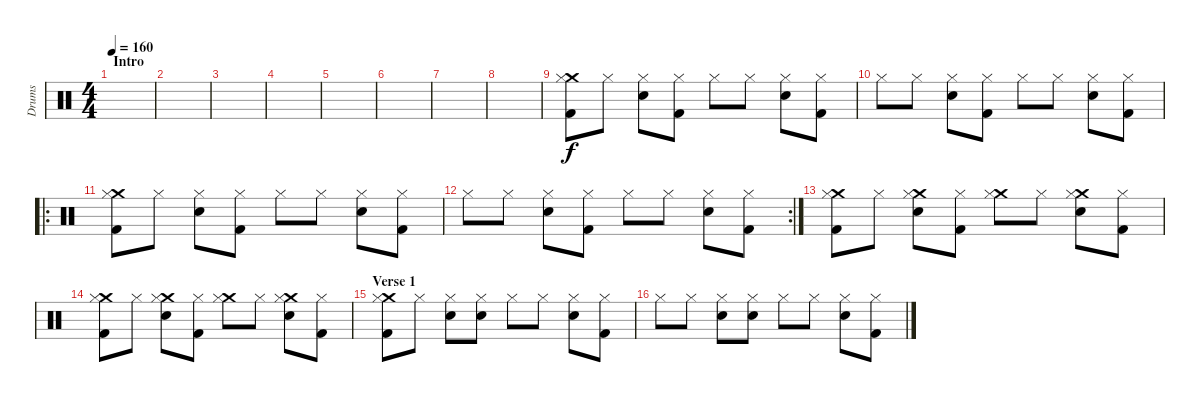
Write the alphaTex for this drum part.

\track ("Drums" "Drums") {instrument percussion}
\staff {score}
\articulation defaults
\ts (4 4)
\section ("" "Intro")
\tempo 160
\clef neutral
\ks c
|
|
|
|
|
|
|
|
("Crash medium (hit)" "Hi-Hat (closed)" "Kick (hit) 2").8 "Hi-Hat (closed)".8 ("Hi-Hat (closed)" "Snare (hit) 2").8 ("Hi-Hat (closed)" "Kick (hit) 2").8 "Hi-Hat (closed)".8 "Hi-Hat (closed)".8 ("Hi-Hat (closed)" "Snare (hit) 2").8 ("Hi-Hat (closed)" "Kick (hit) 2").8 |
"Hi-Hat (closed)".8 "Hi-Hat (closed)".8 ("Hi-Hat (closed)" "Snare (hit) 2").8 ("Hi-Hat (closed)" "Kick (hit) 2").8 "Hi-Hat (closed)".8 "Hi-Hat (closed)".8 ("Hi-Hat (closed)" "Snare (hit) 2").8 ("Hi-Hat (closed)" "Kick (hit) 2").8 |
\ro
("Crash medium (hit)" "Hi-Hat (closed)" "Kick (hit) 2").8 "Hi-Hat (closed)".8 ("Hi-Hat (closed)" "Snare (hit) 2").8 ("Hi-Hat (closed)" "Kick (hit) 2").8 "Hi-Hat (closed)".8 "Hi-Hat (closed)".8 ("Hi-Hat (closed)" "Snare (hit) 2").8 ("Hi-Hat (closed)" "Kick (hit) 2").8 |
\rc 2 "Hi-Hat (closed)".8 "Hi-Hat (closed)".8
("Hi-Hat (closed)" "Snare (hit) 2").8 ("Hi-Hat (closed)" "Kick (hit) 2").8 "Hi-Hat (closed)".8 "Hi-Hat (closed)".8 ("Hi-Hat (closed)" "Snare (hit) 2").8 ("Hi-Hat (closed)" "Kick (hit) 2").8 |
("Crash medium (hit)" "Hi-Hat (closed)" "Kick (hit) 2").8 "Hi-Hat (closed)".8 ("Crash medium (hit)" "Hi-Hat (closed)" "Snare (hit) 2").8 ("Hi-Hat (closed)" "Kick (hit) 2").8 ("Crash medium (hit)" "Hi-Hat (closed)").8 "Hi-Hat (closed)".8 ("Crash medium (hit)" "Hi-Hat (closed)" "Snare (hit) 2").8 ("Hi-Hat (closed)" "Kick (hit) 2").8 |
("Crash medium (hit)" "Hi-Hat (closed)" "Kick (hit) 2").8 "Hi-Hat (closed)".8 ("Crash medium (hit)" "Hi-Hat (closed)" "Snare (hit) 2").8 ("Hi-Hat (closed)" "Kick (hit) 2").8 ("Crash medium (hit)" "Hi-Hat (closed)").8 "Hi-Hat (closed)".8 ("Crash medium (hit)" "Hi-Hat (closed)" "Snare (hit) 2").8 ("Hi-Hat (closed)" "Kick (hit) 2").8 |
\section ("" "Verse 1")
("Crash medium (hit)" "Hi-Hat (closed)" "Kick (hit) 2").8 "Hi-Hat (closed)".8 ("Hi-Hat (closed)" "Snare (hit) 2").8 ("Hi-Hat (closed)" "Snare (hit) 2").8 "Hi-Hat (closed)".8 "Hi-Hat (closed)".8 ("Hi-Hat (closed)" "Snare (hit) 2").8 ("Hi-Hat (closed)" "Kick (hit) 2").8 |
"Hi-Hat (closed)".8 "Hi-Hat (closed)".8 ("Hi-Hat (closed)" "Snare (hit) 2").8 ("Hi-Hat (closed)" "Snare (hit) 2").8 "Hi-Hat (closed)".8 "Hi-Hat (closed)".8 ("Hi-Hat (closed)" "Snare (hit) 2").8 ("Hi-Hat (closed)" "Kick (hit) 2").8
